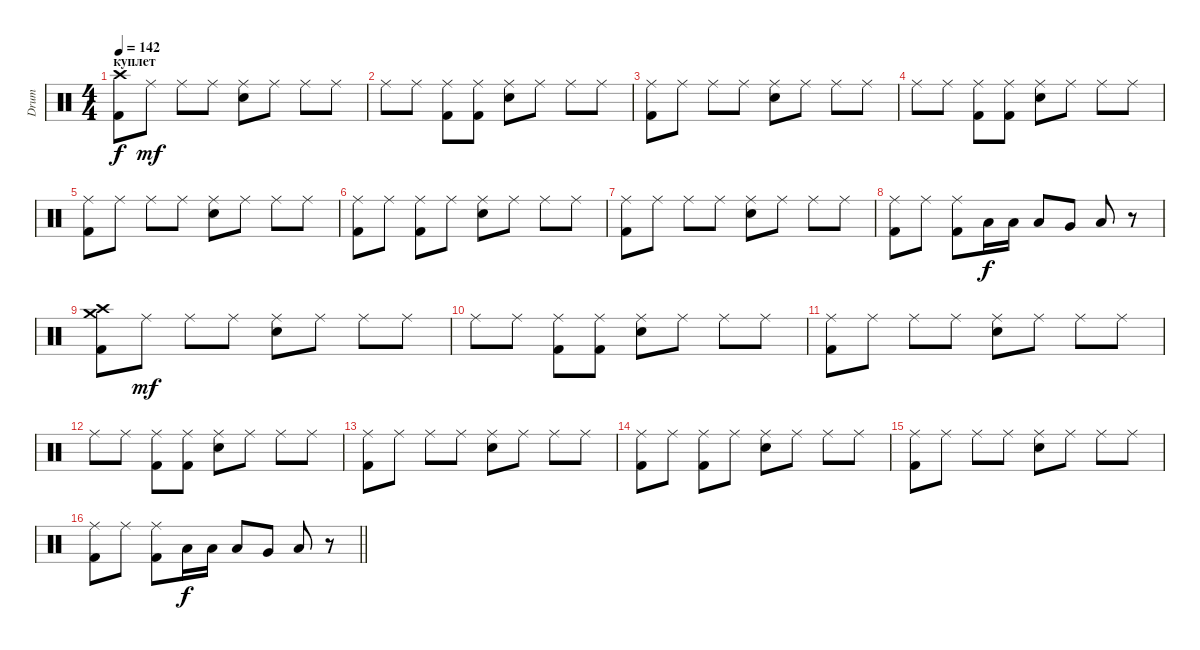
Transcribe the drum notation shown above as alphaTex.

\track ("Drum" "Drum") {instrument percussion}
\staff {score}
\articulation defaults
\ts (4 4)
\section ("" "куплет")
\tempo 142
\clef neutral
\ks c
("Crash high (hit)" "Kick (hit) 2").8{dy f} "Ride (middle)".8{dy mf} "Ride (middle)".8 "Ride (middle)".8 ("Ride (middle)" "Snare (hit) 2").8 "Ride (middle)".8 "Ride (middle)".8 "Ride (middle)".8 |
"Ride (middle)".8 "Ride (middle)".8 ("Ride (middle)" "Kick (hit) 2").8 ("Ride (middle)" "Kick (hit) 2").8 ("Ride (middle)" "Snare (hit) 2").8 "Ride (middle)".8 "Ride (middle)".8 "Ride (middle)".8 |
("Ride (middle)" "Kick (hit) 2").8 "Ride (middle)".8 "Ride (middle)".8 "Ride (middle)".8 ("Ride (middle)" "Snare (hit) 2").8 "Ride (middle)".8 "Ride (middle)".8 "Ride (middle)".8 |
"Ride (middle)".8 "Ride (middle)".8 ("Ride (middle)" "Kick (hit) 2").8 ("Ride (middle)" "Kick (hit) 2").8 ("Ride (middle)" "Snare (hit) 2").8 "Ride (middle)".8 "Ride (middle)".8 "Ride (middle)".8 |
("Ride (middle)" "Kick (hit) 2").8 "Ride (middle)".8 "Ride (middle)".8 "Ride (middle)".8 ("Ride (middle)" "Snare (hit) 2").8 "Ride (middle)".8 "Ride (middle)".8 "Ride (middle)".8 |
("Ride (middle)" "Kick (hit) 2").8 "Ride (middle)".8 ("Ride (middle)" "Kick (hit) 2").8 "Ride (middle)".8 ("Ride (middle)" "Snare (hit) 2").8 "Ride (middle)".8 "Ride (middle)".8 "Ride (middle)".8 |
("Ride (middle)" "Kick (hit) 2").8 "Ride (middle)".8 "Ride (middle)".8 "Ride (middle)".8 ("Ride (middle)" "Snare (hit) 2").8 "Ride (middle)".8 "Ride (middle)".8 "Ride (middle)".8 |
("Ride (middle)" "Kick (hit) 2").8 "Ride (middle)".8 ("Ride (middle)" "Kick (hit) 2").8 "Low Tom (hit)".16{dy f} "Low Tom (hit)".16 "Low Tom (hit)".8 "Very Low Tom (hit)".8 "Low Floor Tom (hit)".8 r.8 |
("Crash medium (hit)" "Crash high (hit)" "Kick (hit) 2").8 "Ride (middle)".8{dy mf} "Ride (middle)".8 "Ride (middle)".8 ("Ride (middle)" "Snare (hit) 2").8 "Ride (middle)".8 "Ride (middle)".8 "Ride (middle)".8 |
"Ride (middle)".8 "Ride (middle)".8 ("Ride (middle)" "Kick (hit) 2").8 ("Ride (middle)" "Kick (hit) 2").8 ("Ride (middle)" "Snare (hit) 2").8 "Ride (middle)".8 "Ride (middle)".8 "Ride (middle)".8 |
("Ride (middle)" "Kick (hit) 2").8 "Ride (middle)".8 "Ride (middle)".8 "Ride (middle)".8 ("Ride (middle)" "Snare (hit) 2").8 "Ride (middle)".8 "Ride (middle)".8 "Ride (middle)".8 |
"Ride (middle)".8 "Ride (middle)".8 ("Ride (middle)" "Kick (hit) 2").8 ("Ride (middle)" "Kick (hit) 2").8 ("Ride (middle)" "Snare (hit) 2").8 "Ride (middle)".8 "Ride (middle)".8 "Ride (middle)".8 |
("Ride (middle)" "Kick (hit) 2").8 "Ride (middle)".8 "Ride (middle)".8 "Ride (middle)".8 ("Ride (middle)" "Snare (hit) 2").8 "Ride (middle)".8 "Ride (middle)".8 "Ride (middle)".8 |
("Ride (middle)" "Kick (hit) 2").8 "Ride (middle)".8 ("Ride (middle)" "Kick (hit) 2").8 "Ride (middle)".8 ("Ride (middle)" "Snare (hit) 2").8 "Ride (middle)".8 "Ride (middle)".8 "Ride (middle)".8 |
("Ride (middle)" "Kick (hit) 2").8 "Ride (middle)".8 "Ride (middle)".8 "Ride (middle)".8 ("Ride (middle)" "Snare (hit) 2").8 "Ride (middle)".8 "Ride (middle)".8 "Ride (middle)".8 |
\barLineRight lightlight
("Ride (middle)" "Kick (hit) 2").8 "Ride (middle)".8 ("Ride (middle)" "Kick (hit) 2").8 "Low Tom (hit)".16{dy f} "Low Tom (hit)".16 "Low Tom (hit)".8 "Very Low Tom (hit)".8 "Low Floor Tom (hit)".8 r.8
